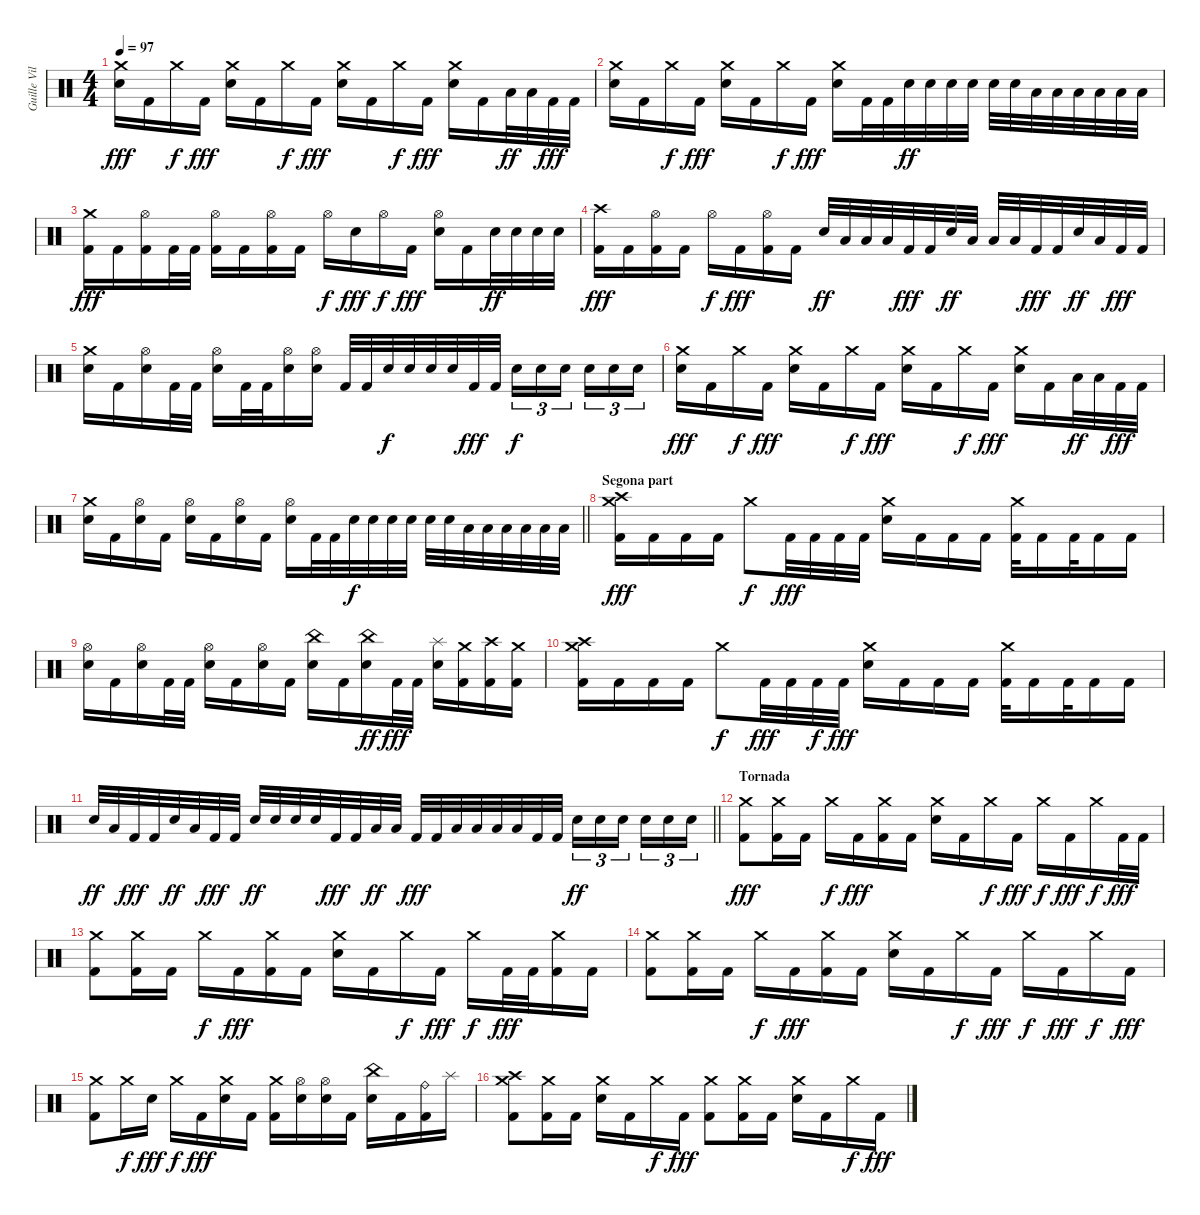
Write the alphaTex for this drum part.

\track ("Guille Vila" "Guille Vil") {instrument percussion}
\staff {score}
\articulation defaults
\ts (4 4)
\tempo 97
\clef neutral
\ks c
("Crash medium (hit)" "Snare (hit) 2").16{dy fff} "Kick (hit) 2".16 "Crash medium (hit)".16{dy f} "Kick (hit) 2".16{dy fff} ("Crash medium (hit)" "Snare (hit) 2").16 "Kick (hit) 2".16 "Crash medium (hit)".16{dy f} "Kick (hit) 2".16{dy fff} ("Crash medium (hit)" "Snare (hit) 2").16 "Kick (hit) 2".16 "Crash medium (hit)".16{dy f} "Kick (hit) 2".16{dy fff} ("Crash medium (hit)" "Snare (hit) 2").16 "Kick (hit) 2".16 "Low Tom (hit)".32{dy ff} "Low Tom (hit)".32 "Kick (hit) 2".32{dy fff} "Kick (hit) 2".32 |
("Crash medium (hit)" "Snare (hit) 2").16 "Kick (hit) 2".16 "Crash medium (hit)".16{dy f} "Kick (hit) 2".16{dy fff} ("Crash medium (hit)" "Snare (hit) 2").16 "Kick (hit) 2".16 "Crash medium (hit)".16{dy f} "Kick (hit) 2".16{dy fff} ("Crash medium (hit)" "Snare (hit) 2").16 "Kick (hit) 2".32 "Kick (hit) 2".32 "Snare (hit) 2".32{dy ff} "Snare (hit) 2".32 "Snare (hit) 2".32 "Snare (hit) 2".32 "Snare (hit) 2".32 "Snare (hit) 2".32 "Low Tom (hit)".32 "Low Tom (hit)".32 "Low Tom (hit)".32 "Low Tom (hit)".32 "Low Floor Tom (hit)".32 "Low Floor Tom (hit)".32 |
("Crash medium (hit)" "Kick (hit) 2").16{dy fff} "Kick (hit) 2".16 ("Hi-Hat (open)" "Kick (hit) 2").16 "Kick (hit) 2".32 "Kick (hit) 2".32 ("Hi-Hat (open)" "Kick (hit) 2").16 "Kick (hit) 2".16 ("Hi-Hat (open)" "Kick (hit) 2").16 "Kick (hit) 2".16 "Hi-Hat (open)".16{dy f} "Snare (hit) 2".16{dy fff} "Hi-Hat (open)".16{dy f} "Kick (hit) 2".16{dy fff} ("Hi-Hat (open)" "Snare (hit) 2").16 "Kick (hit) 2".16 "Snare (hit) 2".32{dy ff} "Snare (hit) 2".32 "Snare (hit) 2".32 "Snare (hit) 2".32 |
("Crash high (hit)" "Kick (hit) 2").16{dy fff} "Kick (hit) 2".16 ("Hi-Hat (open)" "Kick (hit) 2").16 "Kick (hit) 2".16 "Hi-Hat (open)".16{dy f} "Kick (hit) 2".16{dy fff} ("Hi-Hat (open)" "Kick (hit) 2").16 "Kick (hit) 2".16 "Snare (hit) 2".32{dy ff} "Low Tom (hit)".32 "Low Floor Tom (hit)".32 "Low Tom (hit)".32 "Kick (hit) 2".32{dy fff} "Kick (hit) 2".32 "Snare (hit) 2".32{dy ff} "Low Tom (hit)".32 "Low Floor Tom (hit)".32 "Low Tom (hit)".32 "Kick (hit) 2".32{dy fff} "Kick (hit) 2".32 "Snare (hit) 2".32{dy ff} "Low Tom (hit)".32 "Kick (hit) 2".32{dy fff} "Kick (hit) 2".32 |
("Crash medium (hit)" "Snare (hit) 2").16 "Kick (hit) 2".16 ("Hi-Hat (open)" "Snare (hit) 2").16 "Kick (hit) 2".32 "Kick (hit) 2".32 ("Hi-Hat (open)" "Snare (hit) 2").16 "Kick (hit) 2".32 "Kick (hit) 2".32 ("Hi-Hat (open)" "Snare (hit) 2").16 ("Hi-Hat (open)" "Snare (hit) 2").16 "Kick (hit) 2".32 "Kick (hit) 2".32 "Snare (hit) 2".32{dy f} "Snare (hit) 2".32 "Snare (hit) 2".32 "Snare (hit) 2".32 "Kick (hit) 2".32{dy fff} "Kick (hit) 2".32 "Snare (hit) 2".16{tu (3 2) dy f} "Snare (hit) 2".16{tu (3 2)} "Snare (hit) 2".16{tu (3 2) beam splitsecondary} "Snare (hit) 2".16{tu (3 2)} "Snare (hit) 2".16{tu (3 2)} "Snare (hit) 2".16{tu (3 2)} |
("Crash medium (hit)" "Snare (hit) 2").16{dy fff} "Kick (hit) 2".16 "Crash medium (hit)".16{dy f} "Kick (hit) 2".16{dy fff} ("Crash medium (hit)" "Snare (hit) 2").16 "Kick (hit) 2".16 "Crash medium (hit)".16{dy f} "Kick (hit) 2".16{dy fff} ("Crash medium (hit)" "Snare (hit) 2").16 "Kick (hit) 2".16 "Crash medium (hit)".16{dy f} "Kick (hit) 2".16{dy fff} ("Crash medium (hit)" "Snare (hit) 2").16 "Kick (hit) 2".16 "Low Tom (hit)".32{dy ff} "Low Tom (hit)".32 "Kick (hit) 2".32{dy fff} "Kick (hit) 2".32 |
\barLineRight lightlight
("Crash medium (hit)" "Snare (hit) 2").16 "Kick (hit) 2".16 ("Hi-Hat (open)" "Snare (hit) 2").16 "Kick (hit) 2".16 ("Hi-Hat (open)" "Snare (hit) 2").16 "Kick (hit) 2".16 ("Hi-Hat (open)" "Snare (hit) 2").16 "Kick (hit) 2".16 ("Hi-Hat (open)" "Snare (hit) 2").16 "Kick (hit) 2".32 "Kick (hit) 2".32 "Snare (hit) 2".32{dy f} "Snare (hit) 2".32 "Snare (hit) 2".32 "Snare (hit) 2".32 "Snare (hit) 2".32 "Snare (hit) 2".32 "Low Tom (hit)".32 "Low Tom (hit)".32 "Low Tom (hit)".32 "Low Tom (hit)".32 "Low Floor Tom (hit)".32 "Low Floor Tom (hit)".32 |
\section ("" "Segona part")
("Crash medium (hit)" "Crash high (hit)" "Kick (hit) 2").16{dy fff} "Kick (hit) 2".16 "Kick (hit) 2".16 "Kick (hit) 2".16 "Crash medium (hit)".8{dy f} "Kick (hit) 2".32{dy fff} "Kick (hit) 2".32 "Kick (hit) 2".32 "Kick (hit) 2".32 ("Crash medium (hit)" "Snare (hit) 2").16 "Kick (hit) 2".16 "Kick (hit) 2".16 "Kick (hit) 2".16 ("Crash medium (hit)" "Kick (hit) 2").32 "Kick (hit) 2".16 "Kick (hit) 2".32 "Kick (hit) 2".16 "Kick (hit) 2".16 |
("Hi-Hat (open)" "Snare (hit) 2").16 "Kick (hit) 2".16 ("Hi-Hat (open)" "Snare (hit) 2").16 "Kick (hit) 2".32 "Kick (hit) 2".32 ("Hi-Hat (open)" "Snare (hit) 2").16 "Kick (hit) 2".16 ("Hi-Hat (open)" "Snare (hit) 2").16 "Kick (hit) 2".16 ("China (hit)" "Snare (hit) 2").16 "Kick (hit) 2".16 ("China (hit)" "Snare (hit) 2").16{dy ff} "Kick (hit) 2".32{dy fff} "Kick (hit) 2".32 ("Splash (hit)" "Snare (hit) 2").16 ("Crash medium (hit)" "Kick (hit) 2").16 ("Crash high (hit)" "Kick (hit) 2").16 ("Crash medium (hit)" "Kick (hit) 2").16 |
("Crash medium (hit)" "Crash high (hit)" "Kick (hit) 2").16 "Kick (hit) 2".16 "Kick (hit) 2".16 "Kick (hit) 2".16 "Crash medium (hit)".8{dy f} "Kick (hit) 2".32{dy fff} "Kick (hit) 2".32 "Kick (hit) 2".32{dy f} "Kick (hit) 2".32{dy fff} ("Crash medium (hit)" "Snare (hit) 2").16 "Kick (hit) 2".16 "Kick (hit) 2".16 "Kick (hit) 2".16 ("Crash medium (hit)" "Kick (hit) 2").32 "Kick (hit) 2".16 "Kick (hit) 2".32 "Kick (hit) 2".16 "Kick (hit) 2".16 |
\barLineRight lightlight "Snare (hit) 2".32{dy ff} "Low Tom (hit)".32 "Kick (hit) 2".32{dy fff} "Kick (hit) 2".32 "Snare (hit) 2".32{dy ff} "Low Tom (hit)".32 "Kick (hit) 2".32{dy fff} "Kick (hit) 2".32 "Snare (hit) 2".32{dy ff} "Snare (hit) 2".32 "Snare (hit) 2".32 "Snare (hit) 2".32 "Kick (hit) 2".32{dy fff} "Kick (hit) 2".32 "Low Tom (hit)".32{dy ff} "Low Tom (hit)".32 "Kick (hit) 2".32{dy fff} "Kick (hit) 2".32 "Low Floor Tom (hit)".32 "Low Floor Tom (hit)".32 "Low Floor Tom (hit)".32 "Low Floor Tom (hit)".32 "Kick (hit) 2".32 "Kick (hit) 2".32 "Snare (hit) 2".16{tu (3 2) dy ff} "Snare (hit) 2".16{tu (3 2)} "Snare (hit) 2".16{tu (3 2) beam splitsecondary} "Snare (hit) 2".16{tu (3 2)} "Snare (hit) 2".16{tu (3 2)} "Snare (hit) 2".16{tu (3 2)}
|
\section ("" "Tornada")
("Crash medium (hit)" "Kick (hit) 2").8{dy fff} ("Crash medium (hit)" "Kick (hit) 2").16 "Kick (hit) 2".16 "Crash medium (hit)".16{dy f} "Kick (hit) 2".16{dy fff} ("Crash medium (hit)" "Kick (hit) 2").16 "Kick (hit) 2".16 ("Crash medium (hit)" "Snare (hit) 2").16 "Kick (hit) 2".16 "Crash medium (hit)".16{dy f} "Kick (hit) 2".16{dy fff} "Crash medium (hit)".16{dy f} "Kick (hit) 2".16{dy fff} "Crash medium (hit)".16{dy f} "Kick (hit) 2".32{dy fff} "Kick (hit) 2".32 |
("Crash medium (hit)" "Kick (hit) 2").8 ("Crash medium (hit)" "Kick (hit) 2").16 "Kick (hit) 2".16 "Crash medium (hit)".16{dy f} "Kick (hit) 2".16{dy fff} ("Crash medium (hit)" "Kick (hit) 2").16 "Kick (hit) 2".16 ("Crash medium (hit)" "Snare (hit) 2").16 "Kick (hit) 2".16 "Crash medium (hit)".16{dy f} "Kick (hit) 2".16{dy fff} "Crash medium (hit)".16{dy f} "Kick (hit) 2".32{dy fff} "Kick (hit) 2".32 ("Crash medium (hit)" "Kick (hit) 2").16 "Kick (hit) 2".16 |
("Crash medium (hit)" "Kick (hit) 2").8 ("Crash medium (hit)" "Kick (hit) 2").16 "Kick (hit) 2".16 "Crash medium (hit)".16{dy f} "Kick (hit) 2".16{dy fff} ("Crash medium (hit)" "Kick (hit) 2").16 "Kick (hit) 2".16 ("Crash medium (hit)" "Snare (hit) 2").16 "Kick (hit) 2".16 "Crash medium (hit)".16{dy f} "Kick (hit) 2".16{dy fff} "Crash medium (hit)".16{dy f} "Kick (hit) 2".16{dy fff} "Crash medium (hit)".16{dy f} "Kick (hit) 2".16{dy fff} |
("Crash medium (hit)" "Kick (hit) 2").8 "Crash medium (hit)".16{dy f} "Snare (hit) 2".16{dy fff} "Crash medium (hit)".16{dy f} "Kick (hit) 2".16{dy fff} ("Crash medium (hit)" "Snare (hit) 2").16 "Kick (hit) 2".16 ("Crash medium (hit)" "Kick (hit) 2").16 ("Hi-Hat (open)" "Snare (hit) 2").16 ("Hi-Hat (open)" "Snare (hit) 2").16 "Kick (hit) 2".16 ("China (hit)" "Snare (hit) 2").16 "Kick (hit) 2".16 ("Ride (bell)" "Kick (hit) 2").16 "Splash (hit)".16 |
("Crash high (hit)" "Crash medium (hit)" "Kick (hit) 2").8 ("Crash medium (hit)" "Kick (hit) 2").16 "Kick (hit) 2".16 ("Crash medium (hit)" "Snare (hit) 2").16 "Kick (hit) 2".16 "Crash medium (hit)".16{dy f} "Kick (hit) 2".16{dy fff} ("Crash medium (hit)" "Kick (hit) 2").8 ("Crash medium (hit)" "Kick (hit) 2").16 "Kick (hit) 2".16 ("Crash medium (hit)" "Snare (hit) 2").16 "Kick (hit) 2".16 "Crash medium (hit)".16{dy f} "Kick (hit) 2".16{dy fff}
